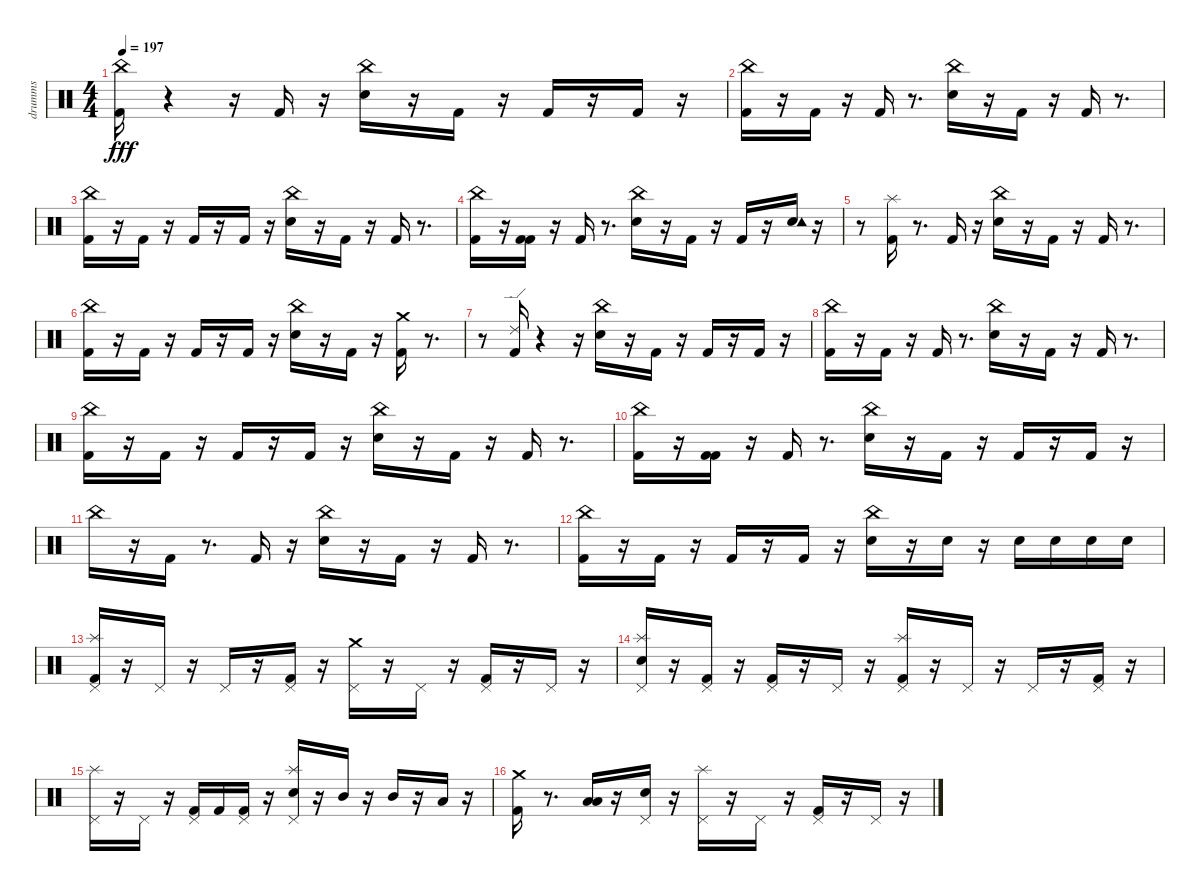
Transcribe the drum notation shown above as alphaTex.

\track ("drumms" "drumms") {instrument percussion}
\staff {score}
\articulation defaults
\ts (4 4)
\tempo 197
\clef neutral
\ks c
("Kick (hit) 2" "China (hit)").16{dy fff} r.4 r.16 "Kick (hit) 2".16{volume 12} r.16 ("Snare (hit) 2" "China (hit)").16{volume 12} r.16 "Kick (hit) 2".16{volume 12} r.16 "Kick (hit) 2".16 r.16 "Kick (hit) 2".16 r.16 |
("Kick (hit) 2" "China (hit)").16 r.16 "Kick (hit) 2".16{volume 12} r.16 "Kick (hit) 2".16 r.8{d} ("Snare (hit) 2" "China (hit)").16{volume 12} r.16 "Kick (hit) 2".16 r.16 "Kick (hit) 2".16{volume 12} r.8{d} |
("Kick (hit) 2" "China (hit)").16{volume 12} r.16 "Kick (hit) 2".16{volume 12} r.16 "Kick (hit) 2".16 r.16 "Kick (hit) 2".16 r.16 ("Snare (hit) 2" "China (hit)").16 r.16 "Kick (hit) 2".16 r.16 "Kick (hit) 2".16 r.8{d} |
("Kick (hit) 2" "China (hit)").16 r.16 ("Kick (hit) 2" "Kick (hit) 2").16 r.16 "Kick (hit) 2".16 r.8{d} ("Snare (hit) 2" "China (hit)").16 r.16 "Kick (hit) 2".16 r.16 "Kick (hit) 2".16{volume 12} r.16 ("Snare (hit) 2" "Tambourine (hit)").16{volume 12} r.16 |
r.8 ("Kick (hit) 2" "Splash (hit)").16 r.8{d} "Kick (hit) 2".16{volume 12} r.16 ("Snare (hit) 2" "China (hit)").16{volume 12} r.16 "Kick (hit) 2".16 r.16 "Kick (hit) 2".16 r.8{d} |
("Kick (hit) 2" "China (hit)").16 r.16 "Kick (hit) 2".16 r.16 "Kick (hit) 2".16 r.16 "Kick (hit) 2".16{volume 12} r.16 ("Snare (hit) 2" "China (hit)").16{volume 12} r.16 "Kick (hit) 2".16 r.16 ("Kick (hit) 2" "Crash medium (hit)").16 r.8{d} |
r.8 ("Kick (hit) 2" "Ride (edge) 2").16{volume 12} r.4 r.16 ("Snare (hit) 2" "China (hit)").16{volume 12} r.16 "Kick (hit) 2".16{volume 12} r.16 "Kick (hit) 2".16 r.16 "Kick (hit) 2".16 r.16 |
("Kick (hit) 2" "China (hit)").16 r.16 "Kick (hit) 2".16{volume 12} r.16 "Kick (hit) 2".16 r.8{d} ("Snare (hit) 2" "China (hit)").16{volume 12} r.16 "Kick (hit) 2".16 r.16 "Kick (hit) 2".16{volume 12} r.8{d} |
("Kick (hit) 2" "China (hit)").16{volume 12} r.16 "Kick (hit) 2".16{volume 12} r.16 "Kick (hit) 2".16 r.16 "Kick (hit) 2".16 r.16 ("Snare (hit) 2" "China (hit)").16 r.16 "Kick (hit) 2".16 r.16 "Kick (hit) 2".16 r.8{d} |
("Kick (hit) 2" "China (hit)").16 r.16 ("Kick (hit) 2" "Kick (hit) 2").16 r.16 "Kick (hit) 2".16 r.8{d} ("Snare (hit) 2" "China (hit)").16 r.16 "Kick (hit) 2".16 r.16 "Kick (hit) 2".16{volume 12} r.16 "Kick (hit) 2".16{volume 12} r.16 |
"China (hit)".16 r.16 "Kick (hit) 2".16 r.8{d} "Kick (hit) 2".16{volume 12} r.16 ("Snare (hit) 2" "China (hit)").16{volume 12} r.16 "Kick (hit) 2".16 r.16 "Kick (hit) 2".16 r.8{d} |
("Kick (hit) 2" "China (hit)").16 r.16 "Kick (hit) 2".16 r.16 "Kick (hit) 2".16 r.16 "Kick (hit) 2".16{volume 12} r.16 ("Snare (hit) 2" "China (hit)").16{volume 12} r.16 "Snare (hit) 2".16 r.16 "Snare (hit) 2".16 "Snare (hit) 2".16{volume 12} "Snare (hit) 2".16{volume 12} "Snare (hit) 2".16 |
("Kick (hit) 2" "Pedal Hi-Hat (hit)" "Splash (hit)").16{volume 12} r.16 "Pedal Hi-Hat (hit)".16{volume 12} r.16 "Pedal Hi-Hat (hit)".16 r.16 ("Kick (hit) 2" "Pedal Hi-Hat (hit)").16 r.16 ("Pedal Hi-Hat (hit)" "Crash medium (hit)").16{volume 12} r.16 "Pedal Hi-Hat (hit)".16{volume 12} r.16 ("Kick (hit) 2" "Pedal Hi-Hat (hit)").16 r.16 "Pedal Hi-Hat (hit)".16 r.16 |
("Snare (hit) 2" "Pedal Hi-Hat (hit)" "Splash (hit)").16 r.16 ("Kick (hit) 2" "Pedal Hi-Hat (hit)").16{volume 12} r.16 ("Kick (hit) 2" "Pedal Hi-Hat (hit)").16 r.16 "Pedal Hi-Hat (hit)".16 r.16 ("Kick (hit) 2" "Pedal Hi-Hat (hit)" "Splash (hit)").16{volume 12} r.16 "Pedal Hi-Hat (hit)".16 r.16 "Pedal Hi-Hat (hit)".16{volume 12} r.16 ("Kick (hit) 2" "Pedal Hi-Hat (hit)").16 r.16 |
("Pedal Hi-Hat (hit)" "Splash (hit)").16{volume 12} r.16 "Pedal Hi-Hat (hit)".16{volume 12} r.16 ("Kick (hit) 2" "Pedal Hi-Hat (hit)").16 "Kick (hit) 2".16 ("Kick (hit) 2" "Pedal Hi-Hat (hit)").16 r.16 ("Snare (hit) 2" "Pedal Hi-Hat (hit)" "Splash (hit)").16 r.16 "Mid Tom (hit)".16 r.16 "Mid Tom (hit)".16 r.16 "Low Floor Tom (hit)".16 r.16 |
("Kick (hit) 2" "Crash medium (hit)").16 r.8{d} ("Low Floor Tom (hit)" "Low Tom (hit)").16{volume 12} r.16 ("Snare (hit) 2" "Pedal Hi-Hat (hit)").16 r.16 ("Pedal Hi-Hat (hit)" "Splash (hit)").16{volume 12} r.16 "Pedal Hi-Hat (hit)".16{volume 12} r.16 ("Kick (hit) 2" "Pedal Hi-Hat (hit)").16 r.16 "Pedal Hi-Hat (hit)".16 r.16
